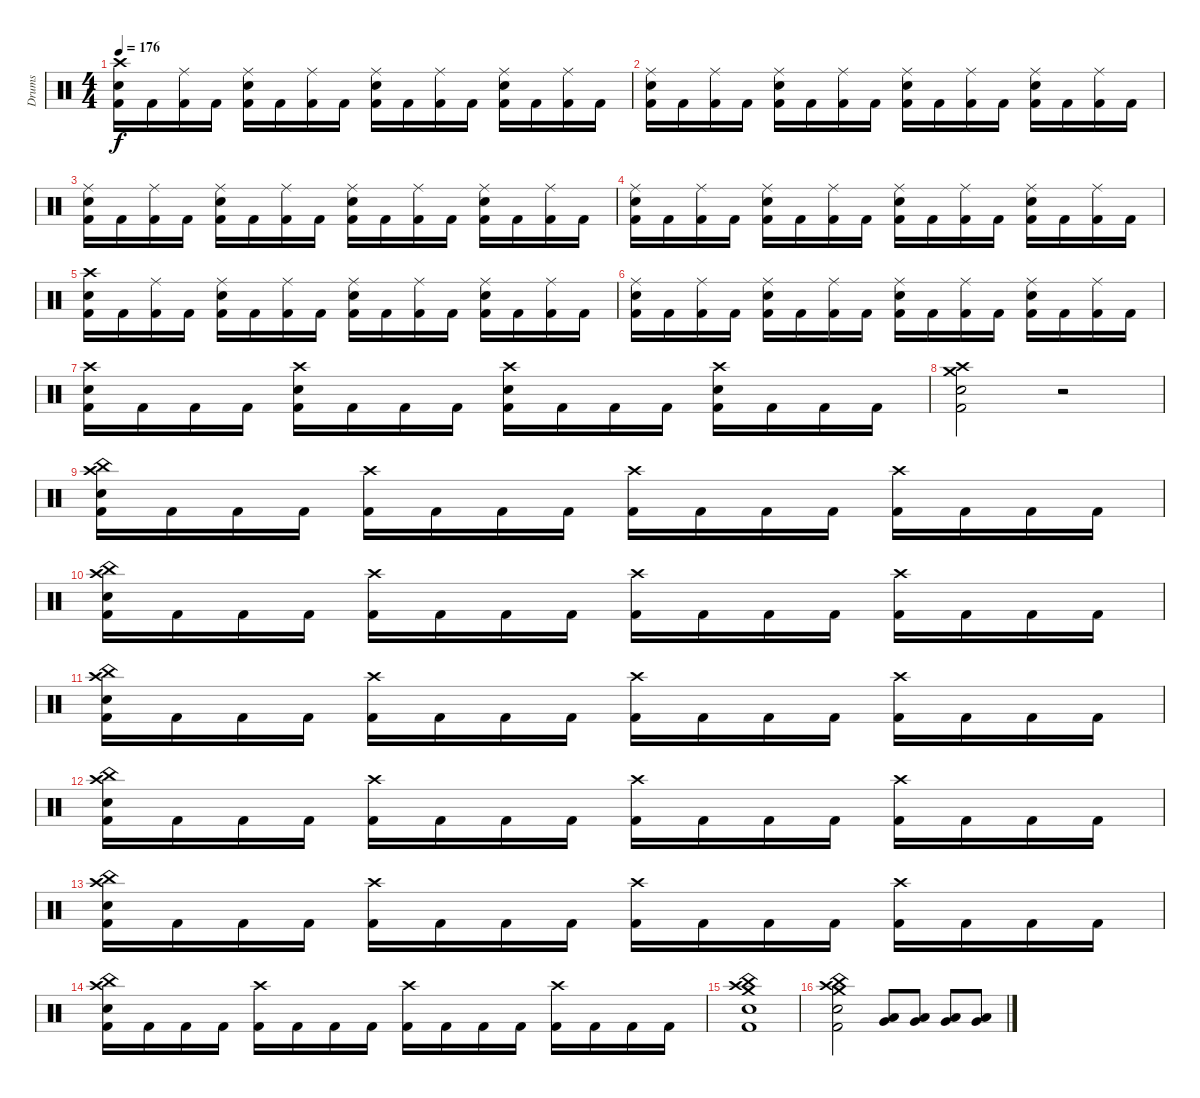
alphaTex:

\track ("Drums" "Drums") {instrument percussion}
\staff {score}
\articulation defaults
\ts (4 4)
\tempo 176
\clef neutral
\ks c
("Crash high (hit)" "Electric Snare (hit)" "Kick (hit) 2").16{dy f} "Kick (hit) 2".16 ("Ride (middle)" "Kick (hit) 2").16 "Kick (hit) 2".16 ("Ride (middle)" "Electric Snare (hit)" "Kick (hit) 2").16 "Kick (hit) 2".16 ("Ride (middle)" "Kick (hit) 2").16 "Kick (hit) 2".16 ("Ride (middle)" "Electric Snare (hit)" "Kick (hit) 2").16 "Kick (hit) 2".16 ("Ride (middle)" "Kick (hit) 2").16 "Kick (hit) 2".16 ("Ride (middle)" "Electric Snare (hit)" "Kick (hit) 2").16 "Kick (hit) 2".16 ("Ride (middle)" "Kick (hit) 2").16 "Kick (hit) 2".16 |
("Ride (middle)" "Electric Snare (hit)" "Kick (hit) 2").16 "Kick (hit) 2".16 ("Ride (middle)" "Kick (hit) 2").16 "Kick (hit) 2".16 ("Ride (middle)" "Electric Snare (hit)" "Kick (hit) 2").16 "Kick (hit) 2".16 ("Ride (middle)" "Kick (hit) 2").16 "Kick (hit) 2".16 ("Ride (middle)" "Electric Snare (hit)" "Kick (hit) 2").16 "Kick (hit) 2".16 ("Ride (middle)" "Kick (hit) 2").16 "Kick (hit) 2".16 ("Ride (middle)" "Electric Snare (hit)" "Kick (hit) 2").16 "Kick (hit) 2".16 ("Ride (middle)" "Kick (hit) 2").16 "Kick (hit) 2".16 |
("Ride (middle)" "Electric Snare (hit)" "Kick (hit) 2").16 "Kick (hit) 2".16 ("Ride (middle)" "Kick (hit) 2").16 "Kick (hit) 2".16 ("Ride (middle)" "Electric Snare (hit)" "Kick (hit) 2").16 "Kick (hit) 2".16 ("Ride (middle)" "Kick (hit) 2").16 "Kick (hit) 2".16 ("Ride (middle)" "Electric Snare (hit)" "Kick (hit) 2").16 "Kick (hit) 2".16 ("Ride (middle)" "Kick (hit) 2").16 "Kick (hit) 2".16 ("Ride (middle)" "Electric Snare (hit)" "Kick (hit) 2").16 "Kick (hit) 2".16 ("Ride (middle)" "Kick (hit) 2").16 "Kick (hit) 2".16 |
("Ride (middle)" "Electric Snare (hit)" "Kick (hit) 2").16 "Kick (hit) 2".16 ("Ride (middle)" "Kick (hit) 2").16 "Kick (hit) 2".16 ("Ride (middle)" "Electric Snare (hit)" "Kick (hit) 2").16 "Kick (hit) 2".16 ("Ride (middle)" "Kick (hit) 2").16 "Kick (hit) 2".16 ("Ride (middle)" "Electric Snare (hit)" "Kick (hit) 2").16 "Kick (hit) 2".16 ("Ride (middle)" "Kick (hit) 2").16 "Kick (hit) 2".16 ("Ride (middle)" "Electric Snare (hit)" "Kick (hit) 2").16 "Kick (hit) 2".16 ("Ride (middle)" "Kick (hit) 2").16 "Kick (hit) 2".16 |
("Crash high (hit)" "Electric Snare (hit)" "Kick (hit) 2").16 "Kick (hit) 2".16 ("Ride (middle)" "Kick (hit) 2").16 "Kick (hit) 2".16 ("Ride (middle)" "Electric Snare (hit)" "Kick (hit) 2").16 "Kick (hit) 2".16 ("Ride (middle)" "Kick (hit) 2").16 "Kick (hit) 2".16 ("Ride (middle)" "Electric Snare (hit)" "Kick (hit) 2").16 "Kick (hit) 2".16 ("Ride (middle)" "Kick (hit) 2").16 "Kick (hit) 2".16 ("Ride (middle)" "Electric Snare (hit)" "Kick (hit) 2").16 "Kick (hit) 2".16 ("Ride (middle)" "Kick (hit) 2").16 "Kick (hit) 2".16 |
("Ride (middle)" "Electric Snare (hit)" "Kick (hit) 2").16 "Kick (hit) 2".16 ("Ride (middle)" "Kick (hit) 2").16 "Kick (hit) 2".16 ("Ride (middle)" "Electric Snare (hit)" "Kick (hit) 2").16 "Kick (hit) 2".16 ("Ride (middle)" "Kick (hit) 2").16 "Kick (hit) 2".16 ("Ride (middle)" "Electric Snare (hit)" "Kick (hit) 2").16 "Kick (hit) 2".16 ("Ride (middle)" "Kick (hit) 2").16 "Kick (hit) 2".16 ("Ride (middle)" "Electric Snare (hit)" "Kick (hit) 2").16 "Kick (hit) 2".16 ("Ride (middle)" "Kick (hit) 2").16 "Kick (hit) 2".16 |
("Crash high (hit)" "Electric Snare (hit)" "Kick (hit) 2").16 "Kick (hit) 2".16 "Kick (hit) 2".16 "Kick (hit) 2".16 ("Crash high (hit)" "Electric Snare (hit)" "Kick (hit) 2").16 "Kick (hit) 2".16 "Kick (hit) 2".16 "Kick (hit) 2".16 ("Crash high (hit)" "Electric Snare (hit)" "Kick (hit) 2").16 "Kick (hit) 2".16 "Kick (hit) 2".16 "Kick (hit) 2".16 ("Crash high (hit)" "Electric Snare (hit)" "Kick (hit) 2").16 "Kick (hit) 2".16 "Kick (hit) 2".16 "Kick (hit) 2".16 |
("Crash medium (hit)" "Crash high (hit)" "Electric Snare (hit)" "Kick (hit) 2").2 r.2 |
("China (hit)" "Crash high (hit)" "Electric Snare (hit)" "Kick (hit) 2").16 "Kick (hit) 2".16 "Kick (hit) 2".16 "Kick (hit) 2".16 ("Crash high (hit)" "Kick (hit) 2").16 "Kick (hit) 2".16 "Kick (hit) 2".16 "Kick (hit) 2".16 ("Crash high (hit)" "Kick (hit) 2").16 "Kick (hit) 2".16 "Kick (hit) 2".16 "Kick (hit) 2".16 ("Crash high (hit)" "Kick (hit) 2").16 "Kick (hit) 2".16 "Kick (hit) 2".16 "Kick (hit) 2".16 |
("China (hit)" "Crash high (hit)" "Electric Snare (hit)" "Kick (hit) 2").16 "Kick (hit) 2".16 "Kick (hit) 2".16 "Kick (hit) 2".16 ("Crash high (hit)" "Kick (hit) 2").16 "Kick (hit) 2".16 "Kick (hit) 2".16 "Kick (hit) 2".16 ("Crash high (hit)" "Kick (hit) 2").16 "Kick (hit) 2".16 "Kick (hit) 2".16 "Kick (hit) 2".16 ("Crash high (hit)" "Kick (hit) 2").16 "Kick (hit) 2".16 "Kick (hit) 2".16 "Kick (hit) 2".16 |
("China (hit)" "Crash high (hit)" "Electric Snare (hit)" "Kick (hit) 2").16 "Kick (hit) 2".16 "Kick (hit) 2".16 "Kick (hit) 2".16 ("Crash high (hit)" "Kick (hit) 2").16 "Kick (hit) 2".16 "Kick (hit) 2".16 "Kick (hit) 2".16 ("Crash high (hit)" "Kick (hit) 2").16 "Kick (hit) 2".16 "Kick (hit) 2".16 "Kick (hit) 2".16 ("Crash high (hit)" "Kick (hit) 2").16 "Kick (hit) 2".16 "Kick (hit) 2".16 "Kick (hit) 2".16 |
("China (hit)" "Crash high (hit)" "Electric Snare (hit)" "Kick (hit) 2").16 "Kick (hit) 2".16 "Kick (hit) 2".16 "Kick (hit) 2".16 ("Crash high (hit)" "Kick (hit) 2").16 "Kick (hit) 2".16 "Kick (hit) 2".16 "Kick (hit) 2".16 ("Crash high (hit)" "Kick (hit) 2").16 "Kick (hit) 2".16 "Kick (hit) 2".16 "Kick (hit) 2".16 ("Crash high (hit)" "Kick (hit) 2").16 "Kick (hit) 2".16 "Kick (hit) 2".16 "Kick (hit) 2".16 |
("China (hit)" "Crash high (hit)" "Electric Snare (hit)" "Kick (hit) 2").16 "Kick (hit) 2".16 "Kick (hit) 2".16 "Kick (hit) 2".16 ("Crash high (hit)" "Kick (hit) 2").16 "Kick (hit) 2".16 "Kick (hit) 2".16 "Kick (hit) 2".16 ("Crash high (hit)" "Kick (hit) 2").16 "Kick (hit) 2".16 "Kick (hit) 2".16 "Kick (hit) 2".16 ("Crash high (hit)" "Kick (hit) 2").16 "Kick (hit) 2".16 "Kick (hit) 2".16 "Kick (hit) 2".16 |
("China (hit)" "Crash high (hit)" "Electric Snare (hit)" "Kick (hit) 2").16 "Kick (hit) 2".16 "Kick (hit) 2".16 "Kick (hit) 2".16 ("Crash high (hit)" "Kick (hit) 2").16 "Kick (hit) 2".16 "Kick (hit) 2".16 "Kick (hit) 2".16 ("Crash high (hit)" "Kick (hit) 2").16 "Kick (hit) 2".16 "Kick (hit) 2".16 "Kick (hit) 2".16 ("Crash high (hit)" "Kick (hit) 2").16 "Kick (hit) 2".16 "Kick (hit) 2".16 "Kick (hit) 2".16 |
("Crash medium (hit)" "China (hit)" "Crash high (hit)" "Electric Snare (hit)" "Kick (hit) 2").1 |
("Crash medium (hit)" "China (hit)" "Crash high (hit)" "Electric Snare (hit)" "Kick (hit) 2").2 ("Low Tom (hit)" "Very Low Tom (hit)").8 ("Low Tom (hit)" "Very Low Tom (hit)").8 ("Low Tom (hit)" "Very Low Tom (hit)").8 ("Low Tom (hit)" "Very Low Tom (hit)").8
